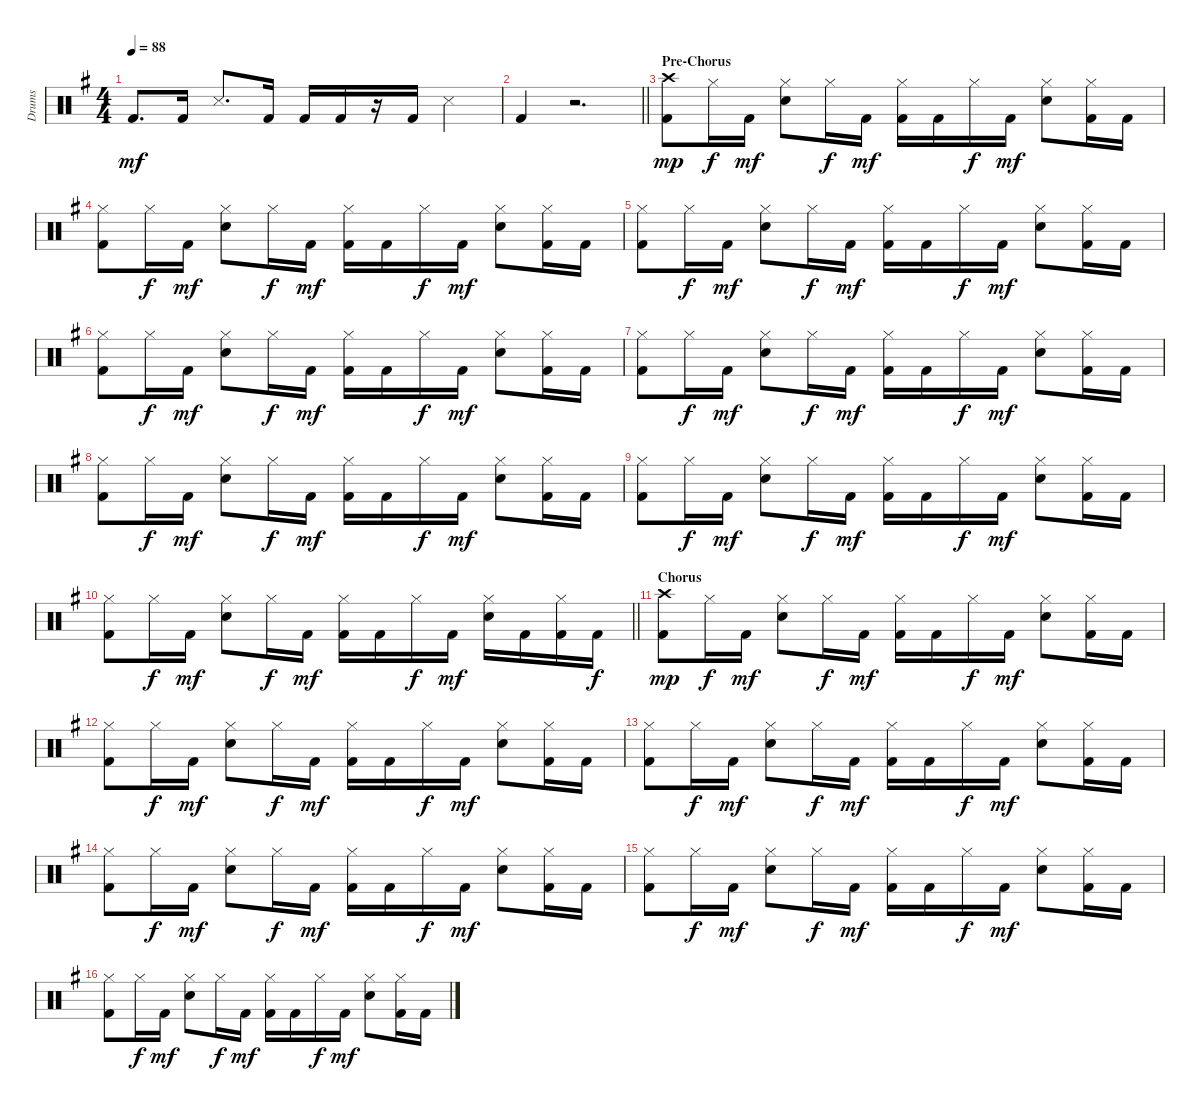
\track ("Drums" "Drums") {instrument percussion}
\staff {score}
\articulation defaults
\ts (4 4)
\tempo 88
\clef neutral
\ks eminor "Kick (hit) 2".8{d dy mf} "Kick (hit) 2".16 "Snare (side stick) 3".8{d} "Kick (hit) 2".16 "Kick (hit) 2".16 "Kick (hit) 2".16
r.16 "Kick (hit) 2".16 "Snare (side stick) 3".4 |
\barLineRight lightlight "Kick (hit) 2".4
r.2{d} |
\section ("" "Pre-Chorus")
("Kick (hit) 2" "Crash high (hit)").8{dy mp} "Hi-Hat (closed)".16{dy f} "Kick (hit) 2".16{dy mf} ("Snare (hit) 2" "Hi-Hat (closed)").8 "Hi-Hat (closed)".16{dy f} "Kick (hit) 2".16{dy mf} ("Kick (hit) 2" "Hi-Hat (closed)").16 "Kick (hit) 2".16 "Hi-Hat (closed)".16{dy f} "Kick (hit) 2".16{dy mf} ("Snare (hit) 2" "Hi-Hat (closed)").8 ("Kick (hit) 2" "Hi-Hat (closed)").16 "Kick (hit) 2".16 |
("Kick (hit) 2" "Hi-Hat (closed)").8 "Hi-Hat (closed)".16{dy f} "Kick (hit) 2".16{dy mf} ("Snare (hit) 2" "Hi-Hat (closed)").8 "Hi-Hat (closed)".16{dy f} "Kick (hit) 2".16{dy mf} ("Kick (hit) 2" "Hi-Hat (closed)").16 "Kick (hit) 2".16 "Hi-Hat (closed)".16{dy f} "Kick (hit) 2".16{dy mf} ("Snare (hit) 2" "Hi-Hat (closed)").8 ("Kick (hit) 2" "Hi-Hat (closed)").16 "Kick (hit) 2".16 |
("Kick (hit) 2" "Hi-Hat (closed)").8 "Hi-Hat (closed)".16{dy f} "Kick (hit) 2".16{dy mf} ("Snare (hit) 2" "Hi-Hat (closed)").8 "Hi-Hat (closed)".16{dy f} "Kick (hit) 2".16{dy mf} ("Kick (hit) 2" "Hi-Hat (closed)").16 "Kick (hit) 2".16 "Hi-Hat (closed)".16{dy f} "Kick (hit) 2".16{dy mf} ("Snare (hit) 2" "Hi-Hat (closed)").8 ("Kick (hit) 2" "Hi-Hat (closed)").16 "Kick (hit) 2".16 |
("Kick (hit) 2" "Hi-Hat (closed)").8 "Hi-Hat (closed)".16{dy f} "Kick (hit) 2".16{dy mf} ("Snare (hit) 2" "Hi-Hat (closed)").8 "Hi-Hat (closed)".16{dy f} "Kick (hit) 2".16{dy mf} ("Kick (hit) 2" "Hi-Hat (closed)").16 "Kick (hit) 2".16 "Hi-Hat (closed)".16{dy f} "Kick (hit) 2".16{dy mf} ("Snare (hit) 2" "Hi-Hat (closed)").8 ("Kick (hit) 2" "Hi-Hat (closed)").16 "Kick (hit) 2".16 |
("Kick (hit) 2" "Hi-Hat (closed)").8 "Hi-Hat (closed)".16{dy f} "Kick (hit) 2".16{dy mf} ("Snare (hit) 2" "Hi-Hat (closed)").8 "Hi-Hat (closed)".16{dy f} "Kick (hit) 2".16{dy mf} ("Kick (hit) 2" "Hi-Hat (closed)").16 "Kick (hit) 2".16 "Hi-Hat (closed)".16{dy f} "Kick (hit) 2".16{dy mf} ("Snare (hit) 2" "Hi-Hat (closed)").8 ("Kick (hit) 2" "Hi-Hat (closed)").16 "Kick (hit) 2".16 |
("Kick (hit) 2" "Hi-Hat (closed)").8 "Hi-Hat (closed)".16{dy f} "Kick (hit) 2".16{dy mf} ("Snare (hit) 2" "Hi-Hat (closed)").8 "Hi-Hat (closed)".16{dy f} "Kick (hit) 2".16{dy mf} ("Kick (hit) 2" "Hi-Hat (closed)").16 "Kick (hit) 2".16 "Hi-Hat (closed)".16{dy f} "Kick (hit) 2".16{dy mf} ("Snare (hit) 2" "Hi-Hat (closed)").8 ("Kick (hit) 2" "Hi-Hat (closed)").16 "Kick (hit) 2".16 |
("Kick (hit) 2" "Hi-Hat (closed)").8 "Hi-Hat (closed)".16{dy f} "Kick (hit) 2".16{dy mf} ("Snare (hit) 2" "Hi-Hat (closed)").8 "Hi-Hat (closed)".16{dy f} "Kick (hit) 2".16{dy mf} ("Kick (hit) 2" "Hi-Hat (closed)").16 "Kick (hit) 2".16 "Hi-Hat (closed)".16{dy f} "Kick (hit) 2".16{dy mf} ("Snare (hit) 2" "Hi-Hat (closed)").8 ("Kick (hit) 2" "Hi-Hat (closed)").16 "Kick (hit) 2".16 |
\barLineRight lightlight
("Kick (hit) 2" "Hi-Hat (closed)").8 "Hi-Hat (closed)".16{dy f} "Kick (hit) 2".16{dy mf} ("Snare (hit) 2" "Hi-Hat (closed)").8 "Hi-Hat (closed)".16{dy f} "Kick (hit) 2".16{dy mf} ("Kick (hit) 2" "Hi-Hat (closed)").16 "Kick (hit) 2".16 "Hi-Hat (closed)".16{dy f} "Kick (hit) 2".16{dy mf} ("Snare (hit) 2" "Hi-Hat (closed)").16 "Kick (hit) 2".16 ("Kick (hit) 2" "Hi-Hat (closed)").16 "Kick (hit) 2".16{dy f} |
\section ("" "Chorus")
("Kick (hit) 2" "Crash high (hit)").8{dy mp} "Hi-Hat (closed)".16{dy f} "Kick (hit) 2".16{dy mf} ("Snare (hit) 2" "Hi-Hat (closed)").8 "Hi-Hat (closed)".16{dy f} "Kick (hit) 2".16{dy mf} ("Kick (hit) 2" "Hi-Hat (closed)").16 "Kick (hit) 2".16 "Hi-Hat (closed)".16{dy f} "Kick (hit) 2".16{dy mf} ("Snare (hit) 2" "Hi-Hat (closed)").8 ("Kick (hit) 2" "Hi-Hat (closed)").16 "Kick (hit) 2".16 |
("Kick (hit) 2" "Hi-Hat (closed)").8 "Hi-Hat (closed)".16{dy f} "Kick (hit) 2".16{dy mf} ("Snare (hit) 2" "Hi-Hat (closed)").8 "Hi-Hat (closed)".16{dy f} "Kick (hit) 2".16{dy mf} ("Kick (hit) 2" "Hi-Hat (closed)").16 "Kick (hit) 2".16 "Hi-Hat (closed)".16{dy f} "Kick (hit) 2".16{dy mf} ("Snare (hit) 2" "Hi-Hat (closed)").8 ("Kick (hit) 2" "Hi-Hat (closed)").16 "Kick (hit) 2".16 |
("Kick (hit) 2" "Hi-Hat (closed)").8 "Hi-Hat (closed)".16{dy f} "Kick (hit) 2".16{dy mf} ("Snare (hit) 2" "Hi-Hat (closed)").8 "Hi-Hat (closed)".16{dy f} "Kick (hit) 2".16{dy mf} ("Kick (hit) 2" "Hi-Hat (closed)").16 "Kick (hit) 2".16 "Hi-Hat (closed)".16{dy f} "Kick (hit) 2".16{dy mf} ("Snare (hit) 2" "Hi-Hat (closed)").8 ("Kick (hit) 2" "Hi-Hat (closed)").16 "Kick (hit) 2".16 |
("Kick (hit) 2" "Hi-Hat (closed)").8 "Hi-Hat (closed)".16{dy f} "Kick (hit) 2".16{dy mf} ("Snare (hit) 2" "Hi-Hat (closed)").8 "Hi-Hat (closed)".16{dy f} "Kick (hit) 2".16{dy mf} ("Kick (hit) 2" "Hi-Hat (closed)").16 "Kick (hit) 2".16 "Hi-Hat (closed)".16{dy f} "Kick (hit) 2".16{dy mf} ("Snare (hit) 2" "Hi-Hat (closed)").8 ("Kick (hit) 2" "Hi-Hat (closed)").16 "Kick (hit) 2".16 |
("Kick (hit) 2" "Hi-Hat (closed)").8 "Hi-Hat (closed)".16{dy f} "Kick (hit) 2".16{dy mf} ("Snare (hit) 2" "Hi-Hat (closed)").8 "Hi-Hat (closed)".16{dy f} "Kick (hit) 2".16{dy mf} ("Kick (hit) 2" "Hi-Hat (closed)").16 "Kick (hit) 2".16 "Hi-Hat (closed)".16{dy f} "Kick (hit) 2".16{dy mf} ("Snare (hit) 2" "Hi-Hat (closed)").8 ("Kick (hit) 2" "Hi-Hat (closed)").16 "Kick (hit) 2".16 |
("Kick (hit) 2" "Hi-Hat (closed)").8 "Hi-Hat (closed)".16{dy f} "Kick (hit) 2".16{dy mf} ("Snare (hit) 2" "Hi-Hat (closed)").8 "Hi-Hat (closed)".16{dy f} "Kick (hit) 2".16{dy mf} ("Kick (hit) 2" "Hi-Hat (closed)").16 "Kick (hit) 2".16 "Hi-Hat (closed)".16{dy f} "Kick (hit) 2".16{dy mf} ("Snare (hit) 2" "Hi-Hat (closed)").8 ("Kick (hit) 2" "Hi-Hat (closed)").16 "Kick (hit) 2".16
